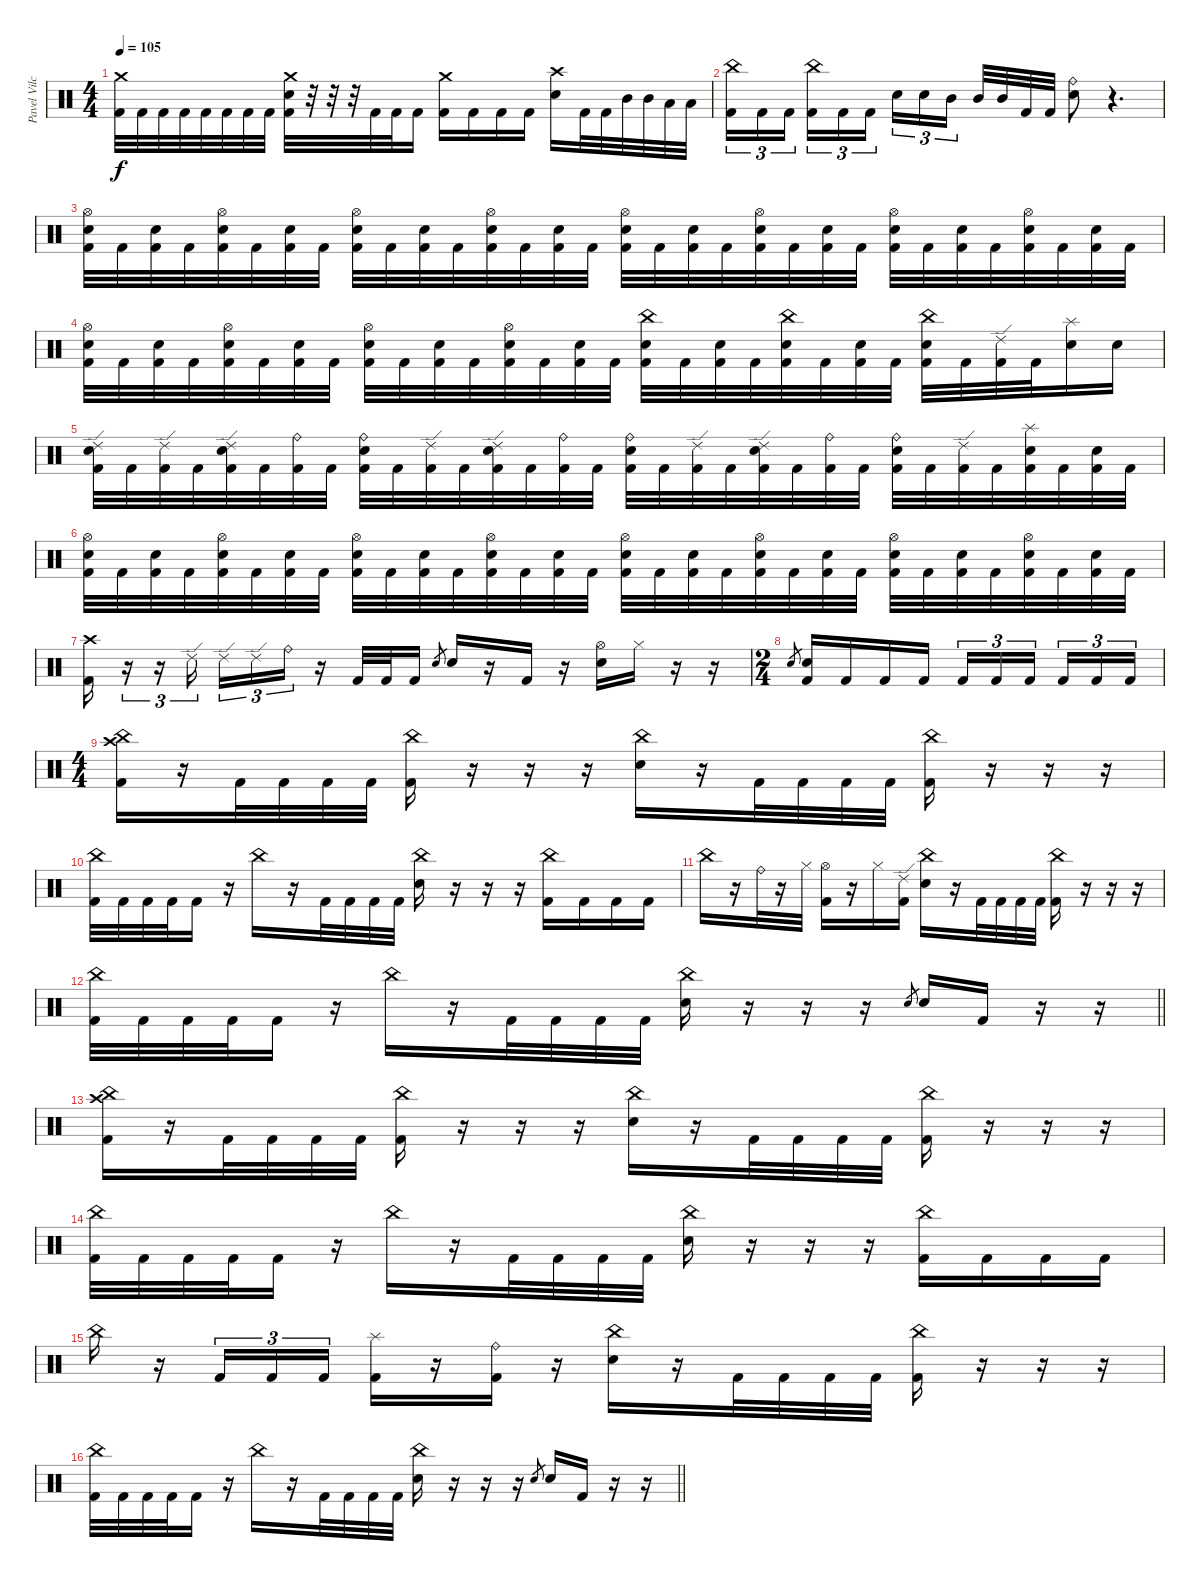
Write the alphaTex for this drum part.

\track ("Pavel Vilchytski" "Pavel Vilc") {instrument percussion}
\staff {score}
\articulation defaults
\ts (4 4)
\tempo 105
\clef neutral
\ks c
("Crash medium (hit)" "Kick (hit) 2").32{dy f} "Kick (hit) 2".32 "Kick (hit) 2".32 "Kick (hit) 2".32 "Kick (hit) 2".32 "Kick (hit) 2".32 "Kick (hit) 2".32 "Kick (hit) 2".32 ("Crash medium (hit)" "Electric Snare (hit)" "Kick (hit) 2").32 r.32 r.32 r.32 "Kick (hit) 2".32 "Kick (hit) 2".32 "Kick (hit) 2".16 ("Crash medium (hit)" "Kick (hit) 2").16 "Kick (hit) 2".16 "Kick (hit) 2".16 "Kick (hit) 2".16 ("Electric Snare (hit)" "Crash high (hit)").16 "Kick (hit) 2".32 "Kick (hit) 2".32 "Mid Tom (hit)".32 "Mid Tom (hit)".32 "Low Tom (hit)".32 "Low Tom (hit)".32 |
("China (hit)" "Kick (hit) 2").16{tu (3 2)} "Kick (hit) 2".16{tu (3 2)} "Kick (hit) 2".16{tu (3 2) beam splitsecondary} ("China (hit)" "Kick (hit) 2").16{tu (3 2)} "Kick (hit) 2".16{tu (3 2)} "Kick (hit) 2".16{tu (3 2)} "Electric Snare (hit)".16{tu (3 2)} "Electric Snare (hit)".16{tu (3 2)} "Mid Tom (hit)".16{tu (3 2) beam splitsecondary} "Mid Tom (hit)".32 "Mid Tom (hit)".32 "Kick (hit) 2".32 "Kick (hit) 2".32 ("Ride (bell)" "Electric Snare (hit)").8 r.4{d} |
("Hi-Hat (open)" "Electric Snare (hit)" "Kick (hit) 2").32 "Kick (hit) 2".32 ("Electric Snare (hit)" "Kick (hit) 2").32 "Kick (hit) 2".32 ("Hi-Hat (open)" "Electric Snare (hit)" "Kick (hit) 2").32 "Kick (hit) 2".32 ("Electric Snare (hit)" "Kick (hit) 2").32 "Kick (hit) 2".32 ("Hi-Hat (open)" "Electric Snare (hit)" "Kick (hit) 2").32 "Kick (hit) 2".32 ("Electric Snare (hit)" "Kick (hit) 2").32 "Kick (hit) 2".32 ("Hi-Hat (open)" "Electric Snare (hit)" "Kick (hit) 2").32 "Kick (hit) 2".32 ("Electric Snare (hit)" "Kick (hit) 2").32 "Kick (hit) 2".32 ("Hi-Hat (open)" "Electric Snare (hit)" "Kick (hit) 2").32 "Kick (hit) 2".32 ("Electric Snare (hit)" "Kick (hit) 2").32 "Kick (hit) 2".32 ("Hi-Hat (open)" "Electric Snare (hit)" "Kick (hit) 2").32 "Kick (hit) 2".32 ("Electric Snare (hit)" "Kick (hit) 2").32 "Kick (hit) 2".32 ("Hi-Hat (open)" "Electric Snare (hit)" "Kick (hit) 2").32 "Kick (hit) 2".32 ("Electric Snare (hit)" "Kick (hit) 2").32 "Kick (hit) 2".32 ("Hi-Hat (open)" "Electric Snare (hit)" "Kick (hit) 2").32 "Kick (hit) 2".32 ("Electric Snare (hit)" "Kick (hit) 2").32 "Kick (hit) 2".32 |
("Hi-Hat (open)" "Electric Snare (hit)" "Kick (hit) 2").32 "Kick (hit) 2".32 ("Electric Snare (hit)" "Kick (hit) 2").32 "Kick (hit) 2".32 ("Hi-Hat (open)" "Electric Snare (hit)" "Kick (hit) 2").32 "Kick (hit) 2".32 ("Electric Snare (hit)" "Kick (hit) 2").32 "Kick (hit) 2".32 ("Hi-Hat (open)" "Electric Snare (hit)" "Kick (hit) 2").32 "Kick (hit) 2".32 ("Electric Snare (hit)" "Kick (hit) 2").32 "Kick (hit) 2".32 ("Hi-Hat (open)" "Electric Snare (hit)" "Kick (hit) 2").32 "Kick (hit) 2".32 ("Electric Snare (hit)" "Kick (hit) 2").32 "Kick (hit) 2".32 ("China (hit)" "Electric Snare (hit)" "Kick (hit) 2").32 "Kick (hit) 2".32 ("Electric Snare (hit)" "Kick (hit) 2").32 "Kick (hit) 2".32 ("China (hit)" "Electric Snare (hit)" "Kick (hit) 2").32 "Kick (hit) 2".32 ("Electric Snare (hit)" "Kick (hit) 2").32 "Kick (hit) 2".32 ("China (hit)" "Electric Snare (hit)" "Kick (hit) 2").32 "Kick (hit) 2".32 ("Ride (edge) 2" "Kick (hit) 2").32 "Kick (hit) 2".32 ("Splash (hit)" "Electric Snare (hit)").16 "Electric Snare (hit)".16 |
("Ride (edge) 2" "Electric Snare (hit)" "Kick (hit) 2").32 "Kick (hit) 2".32 ("Ride (edge) 2" "Kick (hit) 2").32 "Kick (hit) 2".32 ("Ride (edge) 2" "Electric Snare (hit)" "Kick (hit) 2").32 "Kick (hit) 2".32 ("Ride (bell)" "Kick (hit) 2").32 "Kick (hit) 2".32 ("Ride (bell)" "Electric Snare (hit)" "Kick (hit) 2").32 "Kick (hit) 2".32 ("Ride (edge) 2" "Kick (hit) 2").32 "Kick (hit) 2".32 ("Ride (edge) 2" "Electric Snare (hit)" "Kick (hit) 2").32 "Kick (hit) 2".32 ("Ride (bell)" "Kick (hit) 2").32 "Kick (hit) 2".32 ("Ride (bell)" "Electric Snare (hit)" "Kick (hit) 2").32 "Kick (hit) 2".32 ("Ride (edge) 2" "Kick (hit) 2").32 "Kick (hit) 2".32 ("Ride (edge) 2" "Electric Snare (hit)" "Kick (hit) 2").32 "Kick (hit) 2".32 ("Ride (bell)" "Kick (hit) 2").32 "Kick (hit) 2".32 ("Ride (bell)" "Electric Snare (hit)" "Kick (hit) 2").32 "Kick (hit) 2".32 ("Ride (edge) 2" "Kick (hit) 2").32 "Kick (hit) 2".32 ("Splash (hit)" "Electric Snare (hit)" "Kick (hit) 2").32 "Kick (hit) 2".32 ("Electric Snare (hit)" "Kick (hit) 2").32 "Kick (hit) 2".32 |
("Hi-Hat (open)" "Electric Snare (hit)" "Kick (hit) 2").32 "Kick (hit) 2".32 ("Electric Snare (hit)" "Kick (hit) 2").32 "Kick (hit) 2".32 ("Hi-Hat (open)" "Electric Snare (hit)" "Kick (hit) 2").32 "Kick (hit) 2".32 ("Electric Snare (hit)" "Kick (hit) 2").32 "Kick (hit) 2".32 ("Hi-Hat (open)" "Electric Snare (hit)" "Kick (hit) 2").32 "Kick (hit) 2".32 ("Electric Snare (hit)" "Kick (hit) 2").32 "Kick (hit) 2".32 ("Hi-Hat (open)" "Electric Snare (hit)" "Kick (hit) 2").32 "Kick (hit) 2".32 ("Electric Snare (hit)" "Kick (hit) 2").32 "Kick (hit) 2".32 ("Hi-Hat (open)" "Electric Snare (hit)" "Kick (hit) 2").32 "Kick (hit) 2".32 ("Electric Snare (hit)" "Kick (hit) 2").32 "Kick (hit) 2".32 ("Hi-Hat (open)" "Electric Snare (hit)" "Kick (hit) 2").32 "Kick (hit) 2".32 ("Electric Snare (hit)" "Kick (hit) 2").32 "Kick (hit) 2".32 ("Hi-Hat (open)" "Electric Snare (hit)" "Kick (hit) 2").32 "Kick (hit) 2".32 ("Electric Snare (hit)" "Kick (hit) 2").32 "Kick (hit) 2".32 ("Hi-Hat (open)" "Electric Snare (hit)" "Kick (hit) 2").32 "Kick (hit) 2".32 ("Electric Snare (hit)" "Kick (hit) 2").32 "Kick (hit) 2".32 |
("Crash high (hit)" "Kick (hit) 2").16 r.16{tu (3 2)} r.16{tu (3 2)} "Ride (edge) 2".16{tu (3 2) beam splitsecondary} "Ride (edge) 2".16{tu (3 2)} "Ride (edge) 2".16{tu (3 2)} "Ride (bell)".16{tu (3 2)} r.16 "Kick (hit) 2".32 "Kick (hit) 2".32 "Kick (hit) 2".16 "Electric Snare (hit)".8{gr} "Electric Snare (hit)".16 r.16 "Kick (hit) 2".16 r.16 ("Hi-Hat (open)" "Electric Snare (hit)").16 "Hi-Hat (closed)".16 r.16 r.16 |
\ts (2 4)
"Electric Snare (hit)".8{gr} ("Electric Snare (hit)" "Kick (hit) 2").16 "Kick (hit) 2".16 "Kick (hit) 2".16 "Kick (hit) 2".16 "Kick (hit) 2".16{tu (3 2)} "Kick (hit) 2".16{tu (3 2)} "Kick (hit) 2".16{tu (3 2) beam splitsecondary} "Kick (hit) 2".16{tu (3 2)} "Kick (hit) 2".16{tu (3 2)} "Kick (hit) 2".16{tu (3 2)} |
\ts (4 4)
("China (hit)" "Crash high (hit)" "Kick (hit) 2").16 r.16 "Kick (hit) 2".32 "Kick (hit) 2".32 "Kick (hit) 2".32 "Kick (hit) 2".32 ("China (hit)" "Kick (hit) 2").16 r.16 r.16 r.16 ("China (hit)" "Electric Snare (hit)").16 r.16 "Kick (hit) 2".32 "Kick (hit) 2".32 "Kick (hit) 2".32 "Kick (hit) 2".32 ("China (hit)" "Kick (hit) 2").16 r.16 r.16 r.16 |
("China (hit)" "Kick (hit) 2").32 "Kick (hit) 2".32 "Kick (hit) 2".32 "Kick (hit) 2".32 "Kick (hit) 2".16 r.16 "China (hit)".16 r.16 "Kick (hit) 2".32 "Kick (hit) 2".32 "Kick (hit) 2".32 "Kick (hit) 2".32 ("China (hit)" "Electric Snare (hit)").16 r.16 r.16 r.16 ("China (hit)" "Kick (hit) 2").16 "Kick (hit) 2".16 "Kick (hit) 2".16 "Kick (hit) 2".16 |
"China (hit)".16 r.16 "Ride (bell)".32 r.16 "Hi-Hat (closed)".32 ("Hi-Hat (open)" "Kick (hit) 2").16 r.16 "Hi-Hat (closed)".16 ("Ride (edge) 2" "Kick (hit) 2").16 ("China (hit)" "Electric Snare (hit)").16 r.16 "Kick (hit) 2".32 "Kick (hit) 2".32 "Kick (hit) 2".32 "Kick (hit) 2".32 ("China (hit)" "Kick (hit) 2").16 r.16 r.16 r.16 |
\barLineRight lightlight
("China (hit)" "Kick (hit) 2").32 "Kick (hit) 2".32 "Kick (hit) 2".32 "Kick (hit) 2".32 "Kick (hit) 2".16 r.16 "China (hit)".16 r.16 "Kick (hit) 2".32 "Kick (hit) 2".32 "Kick (hit) 2".32 "Kick (hit) 2".32 ("China (hit)" "Electric Snare (hit)").16 r.16 r.16 r.16 "Electric Snare (hit)".8{gr} "Electric Snare (hit)".16 "Kick (hit) 2".16 r.16 r.16 |
("China (hit)" "Crash high (hit)" "Kick (hit) 2").16 r.16 "Kick (hit) 2".32 "Kick (hit) 2".32 "Kick (hit) 2".32 "Kick (hit) 2".32 ("China (hit)" "Kick (hit) 2").16 r.16 r.16 r.16 ("China (hit)" "Electric Snare (hit)").16 r.16 "Kick (hit) 2".32 "Kick (hit) 2".32 "Kick (hit) 2".32 "Kick (hit) 2".32 ("China (hit)" "Kick (hit) 2").16 r.16 r.16 r.16 |
("China (hit)" "Kick (hit) 2").32 "Kick (hit) 2".32 "Kick (hit) 2".32 "Kick (hit) 2".32 "Kick (hit) 2".16 r.16 "China (hit)".16 r.16 "Kick (hit) 2".32 "Kick (hit) 2".32 "Kick (hit) 2".32 "Kick (hit) 2".32 ("China (hit)" "Electric Snare (hit)").16 r.16 r.16 r.16 ("China (hit)" "Kick (hit) 2").16 "Kick (hit) 2".16 "Kick (hit) 2".16 "Kick (hit) 2".16 |
"China (hit)".16 r.16 "Kick (hit) 2".16{tu (3 2)} "Kick (hit) 2".16{tu (3 2)} "Kick (hit) 2".16{tu (3 2)} ("Splash (hit)" "Kick (hit) 2").16 r.16 ("Ride (bell)" "Kick (hit) 2").16 r.16 ("China (hit)" "Electric Snare (hit)").16 r.16 "Kick (hit) 2".32 "Kick (hit) 2".32 "Kick (hit) 2".32 "Kick (hit) 2".32 ("China (hit)" "Kick (hit) 2").16 r.16 r.16 r.16 |
\barLineRight lightlight
("China (hit)" "Kick (hit) 2").32 "Kick (hit) 2".32 "Kick (hit) 2".32 "Kick (hit) 2".32 "Kick (hit) 2".16 r.16 "China (hit)".16 r.16 "Kick (hit) 2".32 "Kick (hit) 2".32 "Kick (hit) 2".32 "Kick (hit) 2".32 ("China (hit)" "Electric Snare (hit)").16 r.16 r.16 r.16 "Electric Snare (hit)".8{gr} "Electric Snare (hit)".16 "Kick (hit) 2".16 r.16 r.16
